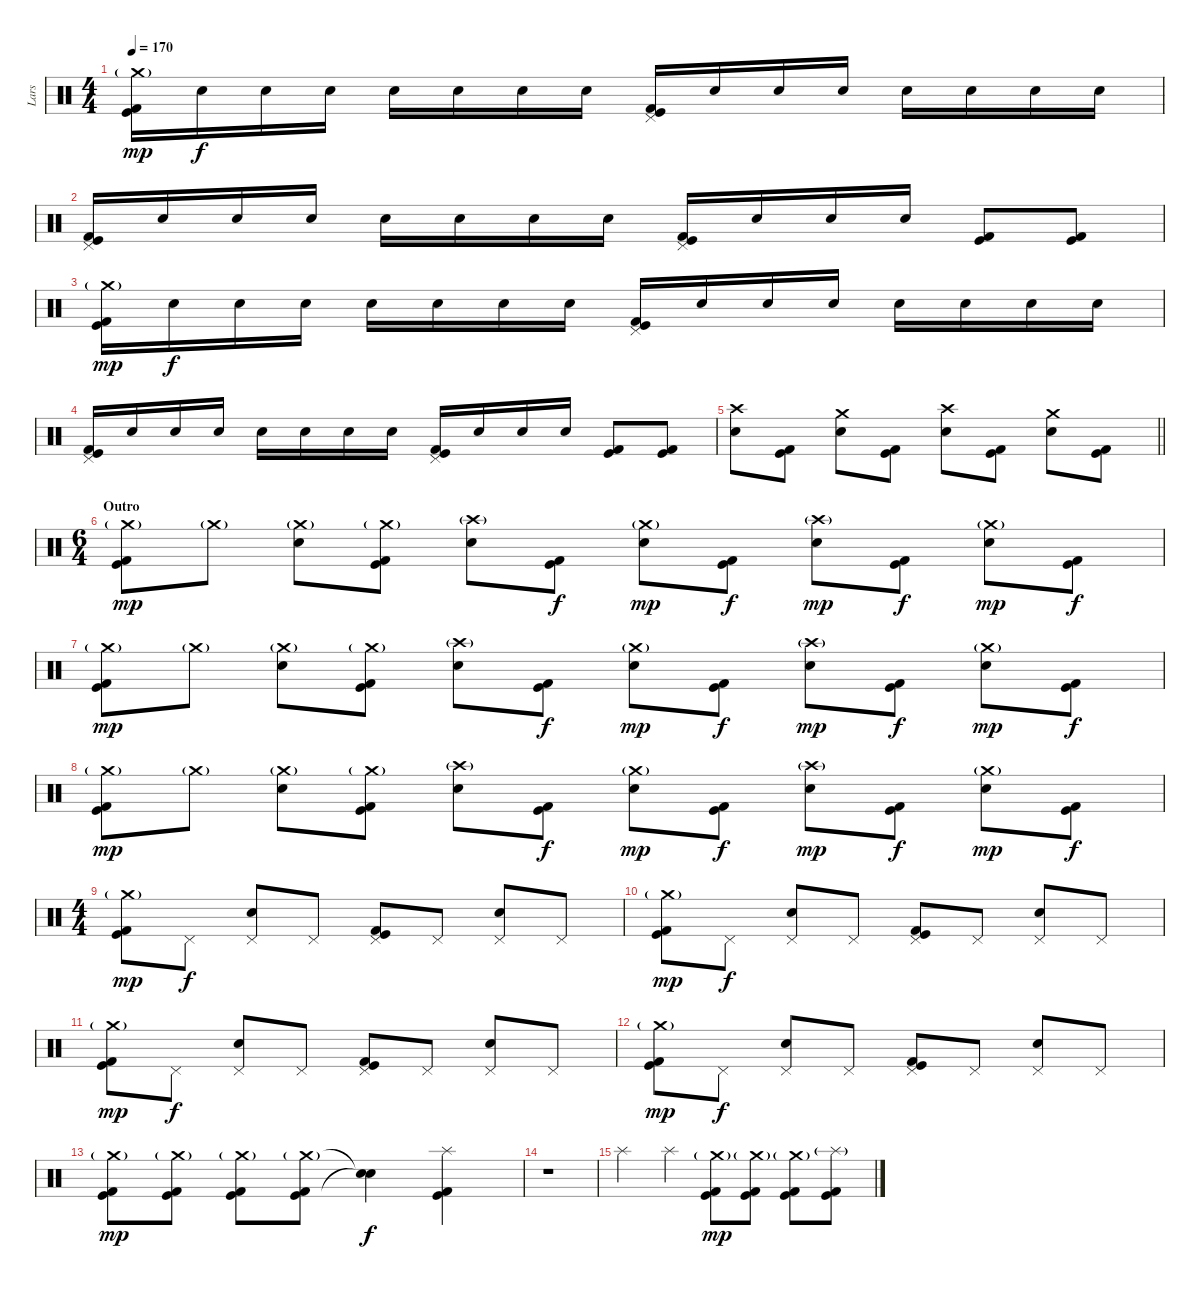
\track ("Lars" "Lars") {instrument percussion}
\staff {score}
\articulation defaults
\ts (4 4)
\tempo 170
\clef neutral
\ks c
("Crash medium (hit)"{g} "Kick (hit)" "Kick (hit) 2").16{dy mp} "Electric Snare (hit)".16{dy f} "Electric Snare (hit)".16 "Electric Snare (hit)".16 "Electric Snare (hit)".16 "Electric Snare (hit)".16 "Electric Snare (hit)".16 "Electric Snare (hit)".16 ("Pedal Hi-Hat (hit)" "Kick (hit)" "Kick (hit) 2").16 "Electric Snare (hit)".16 "Electric Snare (hit)".16 "Electric Snare (hit)".16 "Electric Snare (hit)".16 "Electric Snare (hit)".16 "Electric Snare (hit)".16 "Electric Snare (hit)".16 |
("Pedal Hi-Hat (hit)" "Kick (hit)" "Kick (hit) 2").16 "Electric Snare (hit)".16 "Electric Snare (hit)".16 "Electric Snare (hit)".16 "Electric Snare (hit)".16 "Electric Snare (hit)".16 "Electric Snare (hit)".16 "Electric Snare (hit)".16 ("Pedal Hi-Hat (hit)" "Kick (hit)" "Kick (hit) 2").16 "Electric Snare (hit)".16 "Electric Snare (hit)".16 "Electric Snare (hit)".16 ("Kick (hit)" "Kick (hit) 2").8 ("Kick (hit)" "Kick (hit) 2").8 |
("Crash medium (hit)"{g} "Kick (hit)" "Kick (hit) 2").16{dy mp} "Electric Snare (hit)".16{dy f} "Electric Snare (hit)".16 "Electric Snare (hit)".16 "Electric Snare (hit)".16 "Electric Snare (hit)".16 "Electric Snare (hit)".16 "Electric Snare (hit)".16 ("Pedal Hi-Hat (hit)" "Kick (hit)" "Kick (hit) 2").16 "Electric Snare (hit)".16 "Electric Snare (hit)".16 "Electric Snare (hit)".16 "Electric Snare (hit)".16 "Electric Snare (hit)".16 "Electric Snare (hit)".16 "Electric Snare (hit)".16 |
("Pedal Hi-Hat (hit)" "Kick (hit)" "Kick (hit) 2").16 "Electric Snare (hit)".16 "Electric Snare (hit)".16 "Electric Snare (hit)".16 "Electric Snare (hit)".16 "Electric Snare (hit)".16 "Electric Snare (hit)".16 "Electric Snare (hit)".16 ("Pedal Hi-Hat (hit)" "Kick (hit)" "Kick (hit) 2").16 "Electric Snare (hit)".16 "Electric Snare (hit)".16 "Electric Snare (hit)".16 ("Kick (hit)" "Kick (hit) 2").8 ("Kick (hit)" "Kick (hit) 2").8 |
\barLineRight lightlight
("Crash high (hit)" "Electric Snare (hit)").8 ("Kick (hit)" "Kick (hit) 2").8 ("Crash medium (hit)" "Electric Snare (hit)").8 ("Kick (hit)" "Kick (hit) 2").8 ("Crash high (hit)" "Electric Snare (hit)").8 ("Kick (hit)" "Kick (hit) 2").8 ("Crash medium (hit)" "Electric Snare (hit)").8 ("Kick (hit)" "Kick (hit) 2").8 |
\ts (6 4)
\section ("" "Outro")
("Crash medium (hit)"{g} "Kick (hit)" "Kick (hit) 2").8{dy mp} "Crash medium (hit)"{g}.8 ("Crash medium (hit)"{g} "Electric Snare (hit)").8 ("Crash medium (hit)"{g} "Kick (hit)" "Kick (hit) 2").8 ("Crash high (hit)"{g} "Electric Snare (hit)").8 ("Kick (hit)" "Kick (hit) 2").8{dy f} ("Crash medium (hit)"{g} "Electric Snare (hit)").8{dy mp} ("Kick (hit)" "Kick (hit) 2").8{dy f} ("Crash high (hit)"{g} "Electric Snare (hit)").8{dy mp} ("Kick (hit)" "Kick (hit) 2").8{dy f} ("Crash medium (hit)"{g} "Electric Snare (hit)").8{dy mp} ("Kick (hit)" "Kick (hit) 2").8{dy f} |
("Crash medium (hit)"{g} "Kick (hit)" "Kick (hit) 2").8{dy mp} "Crash medium (hit)"{g}.8 ("Crash medium (hit)"{g} "Electric Snare (hit)").8 ("Crash medium (hit)"{g} "Kick (hit)" "Kick (hit) 2").8 ("Crash high (hit)"{g} "Electric Snare (hit)").8 ("Kick (hit)" "Kick (hit) 2").8{dy f} ("Crash medium (hit)"{g} "Electric Snare (hit)").8{dy mp} ("Kick (hit)" "Kick (hit) 2").8{dy f} ("Crash high (hit)"{g} "Electric Snare (hit)").8{dy mp} ("Kick (hit)" "Kick (hit) 2").8{dy f} ("Crash medium (hit)"{g} "Electric Snare (hit)").8{dy mp} ("Kick (hit)" "Kick (hit) 2").8{dy f} |
("Crash medium (hit)"{g} "Kick (hit)" "Kick (hit) 2").8{dy mp} "Crash medium (hit)"{g}.8 ("Crash medium (hit)"{g} "Electric Snare (hit)").8 ("Crash medium (hit)"{g} "Kick (hit)" "Kick (hit) 2").8 ("Crash high (hit)"{g} "Electric Snare (hit)").8 ("Kick (hit)" "Kick (hit) 2").8{dy f} ("Crash medium (hit)"{g} "Electric Snare (hit)").8{dy mp} ("Kick (hit)" "Kick (hit) 2").8{dy f} ("Crash high (hit)"{g} "Electric Snare (hit)").8{dy mp} ("Kick (hit)" "Kick (hit) 2").8{dy f} ("Crash medium (hit)"{g} "Electric Snare (hit)").8{dy mp} ("Kick (hit)" "Kick (hit) 2").8{dy f} |
\ts (4 4)
("Crash medium (hit)"{g} "Kick (hit)" "Kick (hit) 2").8{dy mp} "Pedal Hi-Hat (hit)".8{dy f} ("Pedal Hi-Hat (hit)" "Electric Snare (hit)").8 "Pedal Hi-Hat (hit)".8 ("Pedal Hi-Hat (hit)" "Kick (hit)" "Kick (hit) 2").8 "Pedal Hi-Hat (hit)".8 ("Pedal Hi-Hat (hit)" "Electric Snare (hit)").8 "Pedal Hi-Hat (hit)".8 |
("Crash medium (hit)"{g} "Kick (hit)" "Kick (hit) 2").8{dy mp} "Pedal Hi-Hat (hit)".8{dy f} ("Pedal Hi-Hat (hit)" "Electric Snare (hit)").8 "Pedal Hi-Hat (hit)".8 ("Pedal Hi-Hat (hit)" "Kick (hit)" "Kick (hit) 2").8 "Pedal Hi-Hat (hit)".8 ("Pedal Hi-Hat (hit)" "Electric Snare (hit)").8 "Pedal Hi-Hat (hit)".8 |
("Crash medium (hit)"{g} "Kick (hit)" "Kick (hit) 2").8{dy mp} "Pedal Hi-Hat (hit)".8{dy f} ("Pedal Hi-Hat (hit)" "Electric Snare (hit)").8 "Pedal Hi-Hat (hit)".8 ("Pedal Hi-Hat (hit)" "Kick (hit)" "Kick (hit) 2").8 "Pedal Hi-Hat (hit)".8 ("Pedal Hi-Hat (hit)" "Electric Snare (hit)").8 "Pedal Hi-Hat (hit)".8 |
("Crash medium (hit)"{g} "Kick (hit)" "Kick (hit) 2").8{dy mp} "Pedal Hi-Hat (hit)".8{dy f} ("Pedal Hi-Hat (hit)" "Electric Snare (hit)").8 "Pedal Hi-Hat (hit)".8 ("Pedal Hi-Hat (hit)" "Kick (hit)" "Kick (hit) 2").8 "Pedal Hi-Hat (hit)".8 ("Pedal Hi-Hat (hit)" "Electric Snare (hit)").8 "Pedal Hi-Hat (hit)".8 |
("Crash medium (hit)"{g} "Kick (hit)" "Kick (hit) 2").8{dy mp} ("Crash medium (hit)"{g} "Kick (hit)" "Kick (hit) 2").8 ("Crash medium (hit)"{g} "Kick (hit)" "Kick (hit) 2").8 ("Crash medium (hit)"{g} "Kick (hit)" "Kick (hit) 2").8 ("Snare (hit)"{t} "Snare (hit)"{t}).4{dy f} ("Splash (hit)" "Kick (hit)" "Kick (hit) 2").4 |
r.1 |
"Splash (hit)".4 "Splash (hit)".4 ("Crash medium (hit)"{g} "Kick (hit)" "Kick (hit) 2").8{dy mp} ("Crash medium (hit)"{g} "Kick (hit)" "Kick (hit) 2").8 ("Crash medium (hit)"{g} "Kick (hit)" "Kick (hit) 2").8 ("Splash (hit)"{g} "Kick (hit)" "Kick (hit) 2").8
